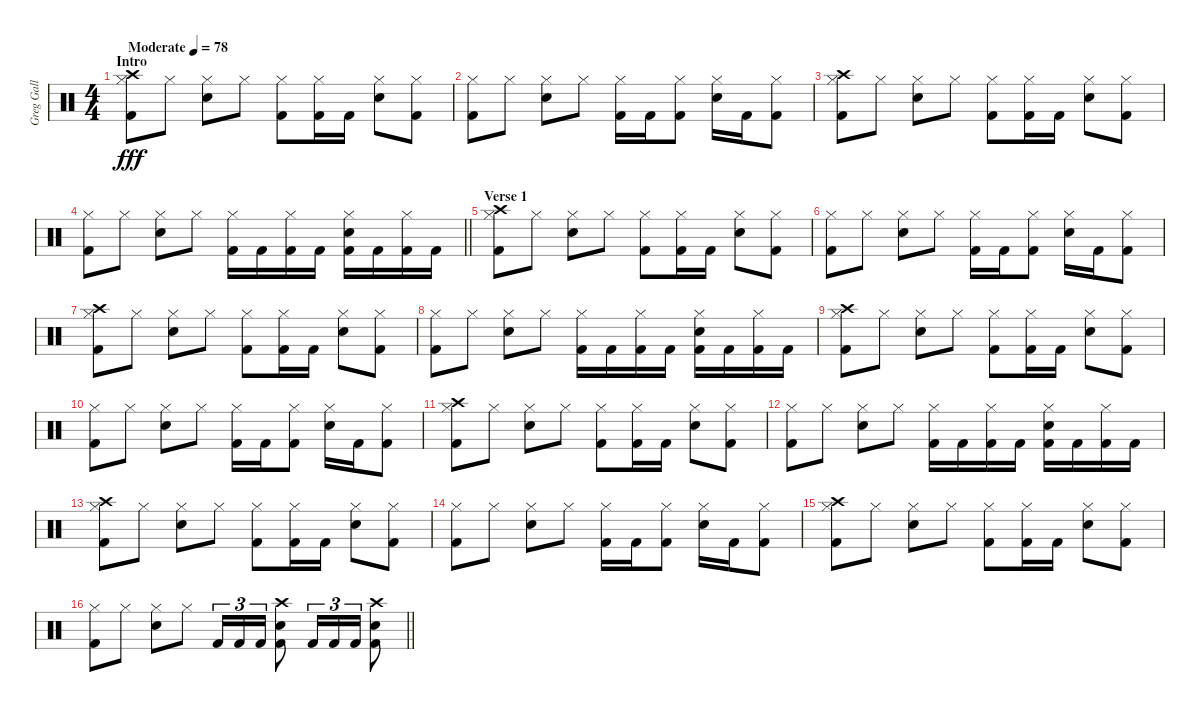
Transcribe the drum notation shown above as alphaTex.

\track ("Greg Gall" "Greg Gall") {instrument percussion}
\staff {score}
\articulation defaults
\ts (4 4)
\section ("" "Intro")
\tempo (78 "Moderate")
\clef neutral
\ks c
("Crash high (hit)" "Hi-Hat (closed)" "Kick (hit) 2").8{dy fff} "Hi-Hat (closed)".8 ("Hi-Hat (closed)" "Electric Snare (hit)").8 "Hi-Hat (closed)".8 ("Hi-Hat (closed)" "Kick (hit) 2").8 ("Hi-Hat (closed)" "Kick (hit) 2").16 "Kick (hit) 2".16 ("Hi-Hat (closed)" "Electric Snare (hit)").8 ("Hi-Hat (closed)" "Kick (hit) 2").8 |
("Hi-Hat (closed)" "Kick (hit) 2").8 "Hi-Hat (closed)".8 ("Hi-Hat (closed)" "Electric Snare (hit)").8 "Hi-Hat (closed)".8 ("Hi-Hat (closed)" "Kick (hit) 2").16 "Kick (hit) 2".16 ("Hi-Hat (closed)" "Kick (hit) 2").8 ("Hi-Hat (closed)" "Electric Snare (hit)").16 "Kick (hit) 2".16 ("Hi-Hat (closed)" "Kick (hit) 2").8 |
("Crash high (hit)" "Hi-Hat (closed)" "Kick (hit) 2").8 "Hi-Hat (closed)".8 ("Hi-Hat (closed)" "Electric Snare (hit)").8 "Hi-Hat (closed)".8 ("Hi-Hat (closed)" "Kick (hit) 2").8 ("Hi-Hat (closed)" "Kick (hit) 2").16 "Kick (hit) 2".16 ("Hi-Hat (closed)" "Electric Snare (hit)").8 ("Hi-Hat (closed)" "Kick (hit) 2").8 |
\barLineRight lightlight
("Hi-Hat (closed)" "Kick (hit) 2").8 "Hi-Hat (closed)".8 ("Hi-Hat (closed)" "Electric Snare (hit)").8 "Hi-Hat (closed)".8 ("Hi-Hat (closed)" "Kick (hit) 2").16 "Kick (hit) 2".16 ("Hi-Hat (closed)" "Kick (hit) 2").16 "Kick (hit) 2".16 ("Hi-Hat (closed)" "Electric Snare (hit)" "Kick (hit) 2").16 "Kick (hit) 2".16 ("Hi-Hat (closed)" "Kick (hit) 2").16 "Kick (hit) 2".16 |
\section ("" "Verse 1")
("Crash high (hit)" "Hi-Hat (closed)" "Kick (hit) 2").8 "Hi-Hat (closed)".8 ("Hi-Hat (closed)" "Electric Snare (hit)").8 "Hi-Hat (closed)".8 ("Hi-Hat (closed)" "Kick (hit) 2").8 ("Hi-Hat (closed)" "Kick (hit) 2").16 "Kick (hit) 2".16 ("Hi-Hat (closed)" "Electric Snare (hit)").8 ("Hi-Hat (closed)" "Kick (hit) 2").8 |
("Hi-Hat (closed)" "Kick (hit) 2").8 "Hi-Hat (closed)".8 ("Hi-Hat (closed)" "Electric Snare (hit)").8 "Hi-Hat (closed)".8 ("Hi-Hat (closed)" "Kick (hit) 2").16 "Kick (hit) 2".16 ("Hi-Hat (closed)" "Kick (hit) 2").8 ("Hi-Hat (closed)" "Electric Snare (hit)").16 "Kick (hit) 2".16 ("Hi-Hat (closed)" "Kick (hit) 2").8 |
("Crash high (hit)" "Hi-Hat (closed)" "Kick (hit) 2").8 "Hi-Hat (closed)".8 ("Hi-Hat (closed)" "Electric Snare (hit)").8 "Hi-Hat (closed)".8 ("Hi-Hat (closed)" "Kick (hit) 2").8 ("Hi-Hat (closed)" "Kick (hit) 2").16 "Kick (hit) 2".16 ("Hi-Hat (closed)" "Electric Snare (hit)").8 ("Hi-Hat (closed)" "Kick (hit) 2").8 |
("Hi-Hat (closed)" "Kick (hit) 2").8 "Hi-Hat (closed)".8 ("Hi-Hat (closed)" "Electric Snare (hit)").8 "Hi-Hat (closed)".8 ("Hi-Hat (closed)" "Kick (hit) 2").16 "Kick (hit) 2".16 ("Hi-Hat (closed)" "Kick (hit) 2").16 "Kick (hit) 2".16 ("Hi-Hat (closed)" "Electric Snare (hit)" "Kick (hit) 2").16 "Kick (hit) 2".16 ("Hi-Hat (closed)" "Kick (hit) 2").16 "Kick (hit) 2".16 |
("Crash high (hit)" "Hi-Hat (closed)" "Kick (hit) 2").8 "Hi-Hat (closed)".8 ("Hi-Hat (closed)" "Electric Snare (hit)").8 "Hi-Hat (closed)".8 ("Hi-Hat (closed)" "Kick (hit) 2").8 ("Hi-Hat (closed)" "Kick (hit) 2").16 "Kick (hit) 2".16 ("Hi-Hat (closed)" "Electric Snare (hit)").8 ("Hi-Hat (closed)" "Kick (hit) 2").8 |
("Hi-Hat (closed)" "Kick (hit) 2").8 "Hi-Hat (closed)".8 ("Hi-Hat (closed)" "Electric Snare (hit)").8 "Hi-Hat (closed)".8 ("Hi-Hat (closed)" "Kick (hit) 2").16 "Kick (hit) 2".16 ("Hi-Hat (closed)" "Kick (hit) 2").8 ("Hi-Hat (closed)" "Electric Snare (hit)").16 "Kick (hit) 2".16 ("Hi-Hat (closed)" "Kick (hit) 2").8 |
("Crash high (hit)" "Hi-Hat (closed)" "Kick (hit) 2").8 "Hi-Hat (closed)".8 ("Hi-Hat (closed)" "Electric Snare (hit)").8 "Hi-Hat (closed)".8 ("Hi-Hat (closed)" "Kick (hit) 2").8 ("Hi-Hat (closed)" "Kick (hit) 2").16 "Kick (hit) 2".16 ("Hi-Hat (closed)" "Electric Snare (hit)").8 ("Hi-Hat (closed)" "Kick (hit) 2").8 |
("Hi-Hat (closed)" "Kick (hit) 2").8 "Hi-Hat (closed)".8 ("Hi-Hat (closed)" "Electric Snare (hit)").8 "Hi-Hat (closed)".8 ("Hi-Hat (closed)" "Kick (hit) 2").16 "Kick (hit) 2".16 ("Hi-Hat (closed)" "Kick (hit) 2").16 "Kick (hit) 2".16 ("Hi-Hat (closed)" "Electric Snare (hit)" "Kick (hit) 2").16 "Kick (hit) 2".16 ("Hi-Hat (closed)" "Kick (hit) 2").16 "Kick (hit) 2".16 |
("Crash high (hit)" "Hi-Hat (closed)" "Kick (hit) 2").8 "Hi-Hat (closed)".8 ("Hi-Hat (closed)" "Electric Snare (hit)").8 "Hi-Hat (closed)".8 ("Hi-Hat (closed)" "Kick (hit) 2").8 ("Hi-Hat (closed)" "Kick (hit) 2").16 "Kick (hit) 2".16 ("Hi-Hat (closed)" "Electric Snare (hit)").8 ("Hi-Hat (closed)" "Kick (hit) 2").8 |
("Hi-Hat (closed)" "Kick (hit) 2").8 "Hi-Hat (closed)".8 ("Hi-Hat (closed)" "Electric Snare (hit)").8 "Hi-Hat (closed)".8 ("Hi-Hat (closed)" "Kick (hit) 2").16 "Kick (hit) 2".16 ("Hi-Hat (closed)" "Kick (hit) 2").8 ("Hi-Hat (closed)" "Electric Snare (hit)").16 "Kick (hit) 2".16 ("Hi-Hat (closed)" "Kick (hit) 2").8 |
("Crash high (hit)" "Hi-Hat (closed)" "Kick (hit) 2").8 "Hi-Hat (closed)".8 ("Hi-Hat (closed)" "Electric Snare (hit)").8 "Hi-Hat (closed)".8 ("Hi-Hat (closed)" "Kick (hit) 2").8 ("Hi-Hat (closed)" "Kick (hit) 2").16 "Kick (hit) 2".16 ("Hi-Hat (closed)" "Electric Snare (hit)").8 ("Hi-Hat (closed)" "Kick (hit) 2").8 |
\barLineRight lightlight
("Hi-Hat (closed)" "Kick (hit) 2").8 "Hi-Hat (closed)".8 ("Hi-Hat (closed)" "Electric Snare (hit)").8 "Hi-Hat (closed)".8 "Kick (hit) 2".16{tu (3 2)} "Kick (hit) 2".16{tu (3 2)} "Kick (hit) 2".16{tu (3 2)} ("Crash high (hit)" "Electric Snare (hit)" "Kick (hit) 2").8 "Kick (hit) 2".16{tu (3 2)} "Kick (hit) 2".16{tu (3 2)} "Kick (hit) 2".16{tu (3 2)} ("Crash high (hit)" "Electric Snare (hit)" "Kick (hit) 2").8
